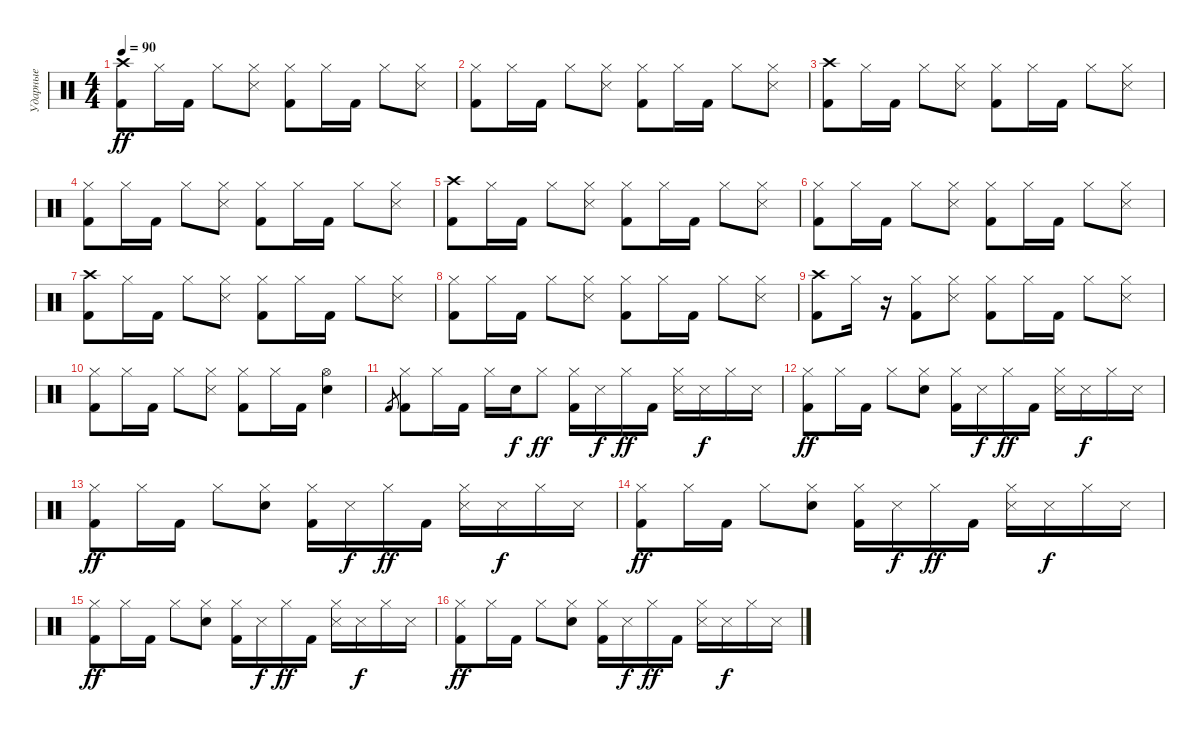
\track ("Ударные" "Ударные") {instrument percussion}
\staff {score}
\articulation defaults
\ts (4 4)
\tempo 90
\clef neutral
\ks c
("Crash high (hit)" "Kick (hit) 2").8{dy ff} "Hi-Hat (closed)".16 "Kick (hit) 2".16 "Hi-Hat (closed)".8 ("Hi-Hat (closed)" "Snare (side stick) 3").8 ("Hi-Hat (closed)" "Kick (hit) 2").8 "Hi-Hat (closed)".16 "Kick (hit) 2".16 "Hi-Hat (closed)".8 ("Hi-Hat (closed)" "Snare (side stick) 3").8 |
("Hi-Hat (closed)" "Kick (hit) 2").8 "Hi-Hat (closed)".16 "Kick (hit) 2".16 "Hi-Hat (closed)".8 ("Hi-Hat (closed)" "Snare (side stick) 3").8 ("Hi-Hat (closed)" "Kick (hit) 2").8 "Hi-Hat (closed)".16 "Kick (hit) 2".16 "Hi-Hat (closed)".8 ("Hi-Hat (closed)" "Snare (side stick) 3").8 |
("Crash high (hit)" "Kick (hit) 2").8 "Hi-Hat (closed)".16 "Kick (hit) 2".16 "Hi-Hat (closed)".8 ("Hi-Hat (closed)" "Snare (side stick) 3").8 ("Hi-Hat (closed)" "Kick (hit) 2").8 "Hi-Hat (closed)".16 "Kick (hit) 2".16 "Hi-Hat (closed)".8 ("Hi-Hat (closed)" "Snare (side stick) 3").8 |
("Hi-Hat (closed)" "Kick (hit) 2").8 "Hi-Hat (closed)".16 "Kick (hit) 2".16 "Hi-Hat (closed)".8 ("Hi-Hat (closed)" "Snare (side stick) 3").8 ("Hi-Hat (closed)" "Kick (hit) 2").8 "Hi-Hat (closed)".16 "Kick (hit) 2".16 "Hi-Hat (closed)".8 ("Hi-Hat (closed)" "Snare (side stick) 3").8 |
("Crash high (hit)" "Kick (hit) 2").8 "Hi-Hat (closed)".16 "Kick (hit) 2".16 "Hi-Hat (closed)".8 ("Hi-Hat (closed)" "Snare (side stick) 3").8 ("Hi-Hat (closed)" "Kick (hit) 2").8 "Hi-Hat (closed)".16 "Kick (hit) 2".16 "Hi-Hat (closed)".8 ("Hi-Hat (closed)" "Snare (side stick) 3").8 |
("Hi-Hat (closed)" "Kick (hit) 2").8 "Hi-Hat (closed)".16 "Kick (hit) 2".16 "Hi-Hat (closed)".8 ("Hi-Hat (closed)" "Snare (side stick) 3").8 ("Hi-Hat (closed)" "Kick (hit) 2").8 "Hi-Hat (closed)".16 "Kick (hit) 2".16 "Hi-Hat (closed)".8 ("Hi-Hat (closed)" "Snare (side stick) 3").8 |
("Crash high (hit)" "Kick (hit) 2").8 "Hi-Hat (closed)".16 "Kick (hit) 2".16 "Hi-Hat (closed)".8 ("Hi-Hat (closed)" "Snare (side stick) 3").8 ("Hi-Hat (closed)" "Kick (hit) 2").8 "Hi-Hat (closed)".16 "Kick (hit) 2".16 "Hi-Hat (closed)".8 ("Hi-Hat (closed)" "Snare (side stick) 3").8 |
("Hi-Hat (closed)" "Kick (hit) 2").8 "Hi-Hat (closed)".16 "Kick (hit) 2".16 "Hi-Hat (closed)".8 ("Hi-Hat (closed)" "Snare (side stick) 3").8 ("Hi-Hat (closed)" "Kick (hit) 2").8 "Hi-Hat (closed)".16 "Kick (hit) 2".16 "Hi-Hat (closed)".8 ("Hi-Hat (closed)" "Snare (side stick) 3").8 |
("Crash high (hit)" "Kick (hit) 2").8 "Hi-Hat (closed)".16 r.16 ("Hi-Hat (closed)" "Kick (hit) 2").8 ("Hi-Hat (closed)" "Snare (side stick) 3").8 ("Hi-Hat (closed)" "Kick (hit) 2").8 "Hi-Hat (closed)".16 "Kick (hit) 2".16 "Hi-Hat (closed)".8 ("Hi-Hat (closed)" "Snare (side stick) 3").8 |
("Hi-Hat (closed)" "Kick (hit) 2").8 "Hi-Hat (closed)".16 "Kick (hit) 2".16 "Hi-Hat (closed)".8 ("Hi-Hat (closed)" "Snare (side stick) 3").8 ("Hi-Hat (closed)" "Kick (hit) 2").8 "Hi-Hat (closed)".16 "Kick (hit) 2".16 ("Electric Snare (hit)" "Hi-Hat (open)").4 |
"Kick (hit) 2".8{gr} ("Hi-Hat (closed)" "Kick (hit) 2").8 "Hi-Hat (closed)".16 "Kick (hit) 2".16 "Hi-Hat (closed)".16 "Electric Snare (hit)".16{dy f} "Hi-Hat (closed)".8{dy ff} ("Hi-Hat (closed)" "Kick (hit) 2").16 "Snare (side stick) 3".16{dy f} "Hi-Hat (closed)".16{dy ff} "Kick (hit) 2".16 ("Hi-Hat (closed)" "Snare (side stick) 3").16 "Snare (side stick) 3".16{dy f} "Hi-Hat (closed)".16 "Snare (side stick) 3".16 |
("Hi-Hat (closed)" "Kick (hit) 2").8{dy ff} "Hi-Hat (closed)".16 "Kick (hit) 2".16 "Hi-Hat (closed)".8 ("Hi-Hat (closed)" "Electric Snare (hit)").8 ("Hi-Hat (closed)" "Kick (hit) 2").16 "Snare (side stick) 3".16{dy f} "Hi-Hat (closed)".16{dy ff} "Kick (hit) 2".16 ("Hi-Hat (closed)" "Snare (side stick) 3").16 "Snare (side stick) 3".16{dy f} "Hi-Hat (closed)".16 "Snare (side stick) 3".16 |
("Hi-Hat (closed)" "Kick (hit) 2").8{dy ff} "Hi-Hat (closed)".16 "Kick (hit) 2".16 "Hi-Hat (closed)".8 ("Hi-Hat (closed)" "Electric Snare (hit)").8 ("Hi-Hat (closed)" "Kick (hit) 2").16 "Snare (side stick) 3".16{dy f} "Hi-Hat (closed)".16{dy ff} "Kick (hit) 2".16 ("Hi-Hat (closed)" "Snare (side stick) 3").16 "Snare (side stick) 3".16{dy f} "Hi-Hat (closed)".16 "Snare (side stick) 3".16 |
("Hi-Hat (closed)" "Kick (hit) 2").8{dy ff} "Hi-Hat (closed)".16 "Kick (hit) 2".16 "Hi-Hat (closed)".8 ("Hi-Hat (closed)" "Electric Snare (hit)").8 ("Hi-Hat (closed)" "Kick (hit) 2").16 "Snare (side stick) 3".16{dy f} "Hi-Hat (closed)".16{dy ff} "Kick (hit) 2".16 ("Hi-Hat (closed)" "Snare (side stick) 3").16 "Snare (side stick) 3".16{dy f} "Hi-Hat (closed)".16 "Snare (side stick) 3".16 |
("Hi-Hat (closed)" "Kick (hit) 2").8{dy ff} "Hi-Hat (closed)".16 "Kick (hit) 2".16 "Hi-Hat (closed)".8 ("Hi-Hat (closed)" "Electric Snare (hit)").8 ("Hi-Hat (closed)" "Kick (hit) 2").16 "Snare (side stick) 3".16{dy f} "Hi-Hat (closed)".16{dy ff} "Kick (hit) 2".16 ("Hi-Hat (closed)" "Snare (side stick) 3").16 "Snare (side stick) 3".16{dy f} "Hi-Hat (closed)".16 "Snare (side stick) 3".16 |
("Hi-Hat (closed)" "Kick (hit) 2").8{dy ff} "Hi-Hat (closed)".16 "Kick (hit) 2".16 "Hi-Hat (closed)".8 ("Hi-Hat (closed)" "Electric Snare (hit)").8 ("Hi-Hat (closed)" "Kick (hit) 2").16 "Snare (side stick) 3".16{dy f} "Hi-Hat (closed)".16{dy ff} "Kick (hit) 2".16 ("Hi-Hat (closed)" "Snare (side stick) 3").16 "Snare (side stick) 3".16{dy f} "Hi-Hat (closed)".16 "Snare (side stick) 3".16
